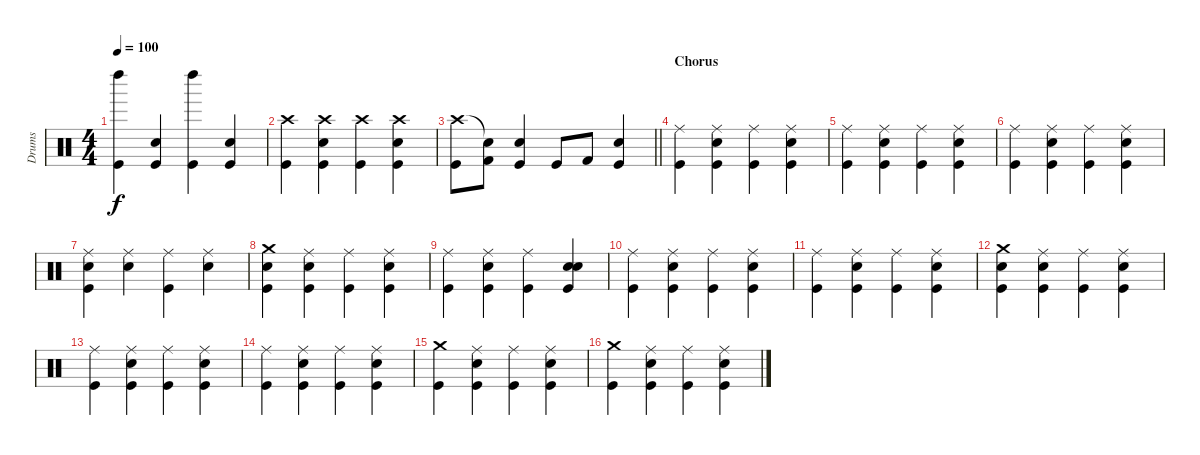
\track ("Drums" "Drums") {instrument percussion}
\staff {score}
\articulation defaults
\ts (4 4)
\tempo 100
\clef neutral
\ks c
("Left Maraca (hit)" "Kick (hit)").4{dy f} ("Kick (hit)" "Snare (hit) 2").4 ("Left Maraca (hit)" "Kick (hit)").4 ("Kick (hit)" "Snare (hit) 2").4 |
("Crash high (hit)" "Kick (hit)").4 ("Crash high (hit)" "Kick (hit)" "Snare (hit) 2").4 ("Crash high (hit)" "Kick (hit)").4 ("Crash high (hit)" "Kick (hit)" "Snare (hit) 2").4 |
\barLineRight lightlight
("Crash high (hit)" "Kick (hit)").8 ("Snare (hit)"{t} "Kick (hit) 2").8 ("Kick (hit)" "Snare (hit) 2").4 "Kick (hit)".8 "Kick (hit) 2".8 ("Kick (hit)" "Snare (hit) 2").4 |
\section ("" "Chorus")
("Ride (middle)" "Kick (hit)").4 ("Ride (middle)" "Kick (hit)" "Snare (hit) 2").4 ("Ride (middle)" "Kick (hit)").4 ("Ride (middle)" "Kick (hit)" "Snare (hit) 2").4 |
("Ride (middle)" "Kick (hit)").4 ("Ride (middle)" "Kick (hit)" "Snare (hit) 2").4 ("Ride (middle)" "Kick (hit)").4 ("Ride (middle)" "Kick (hit)" "Snare (hit) 2").4 |
("Ride (middle)" "Kick (hit)").4 ("Ride (middle)" "Kick (hit)" "Snare (hit) 2").4 ("Ride (middle)" "Kick (hit)").4 ("Ride (middle)" "Kick (hit)" "Snare (hit) 2").4 |
("Ride (middle)" "Kick (hit)" "Snare (hit) 2").4 ("Ride (middle)" "Snare (hit) 2").4 ("Ride (middle)" "Kick (hit)").4 ("Ride (middle)" "Snare (hit) 2").4 |
("Crash medium (hit)" "Snare (hit) 2" "Kick (hit)").4 ("Ride (middle)" "Kick (hit)" "Snare (hit) 2").4 ("Ride (middle)" "Kick (hit)").4 ("Ride (middle)" "Kick (hit)" "Snare (hit) 2").4 |
("Ride (middle)" "Kick (hit)").4 ("Ride (middle)" "Kick (hit)" "Snare (hit) 2").4 ("Ride (middle)" "Kick (hit)").4 ("Snare (hit)" "Kick (hit)" "Snare (hit) 2").4 |
("Ride (middle)" "Kick (hit)").4 ("Ride (middle)" "Kick (hit)" "Snare (hit) 2").4 ("Ride (middle)" "Kick (hit)").4 ("Ride (middle)" "Kick (hit)" "Snare (hit) 2").4 |
("Ride (middle)" "Kick (hit)").4 ("Ride (middle)" "Kick (hit)" "Snare (hit) 2").4 ("Ride (middle)" "Kick (hit)").4 ("Ride (middle)" "Kick (hit)" "Snare (hit) 2").4 |
("Crash medium (hit)" "Snare (hit) 2" "Kick (hit)").4 ("Ride (middle)" "Kick (hit)" "Snare (hit) 2").4 ("Ride (middle)" "Kick (hit)").4 ("Ride (middle)" "Kick (hit)" "Snare (hit) 2").4 |
("Ride (middle)" "Kick (hit)").4 ("Ride (middle)" "Kick (hit)" "Snare (hit) 2").4 ("Ride (middle)" "Kick (hit)").4 ("Ride (middle)" "Kick (hit)" "Snare (hit) 2").4 |
("Ride (middle)" "Kick (hit)").4 ("Ride (middle)" "Kick (hit)" "Snare (hit) 2").4 ("Ride (middle)" "Kick (hit)").4 ("Ride (middle)" "Kick (hit)" "Snare (hit) 2").4 |
("Crash medium (hit)" "Kick (hit)").4 ("Ride (middle)" "Kick (hit)" "Snare (hit) 2").4 ("Ride (middle)" "Kick (hit)").4 ("Ride (middle)" "Kick (hit)" "Snare (hit) 2").4 |
("Crash medium (hit)" "Kick (hit)").4 ("Ride (middle)" "Kick (hit)" "Snare (hit) 2").4 ("Ride (middle)" "Kick (hit)").4 ("Ride (middle)" "Kick (hit)" "Snare (hit) 2").4
